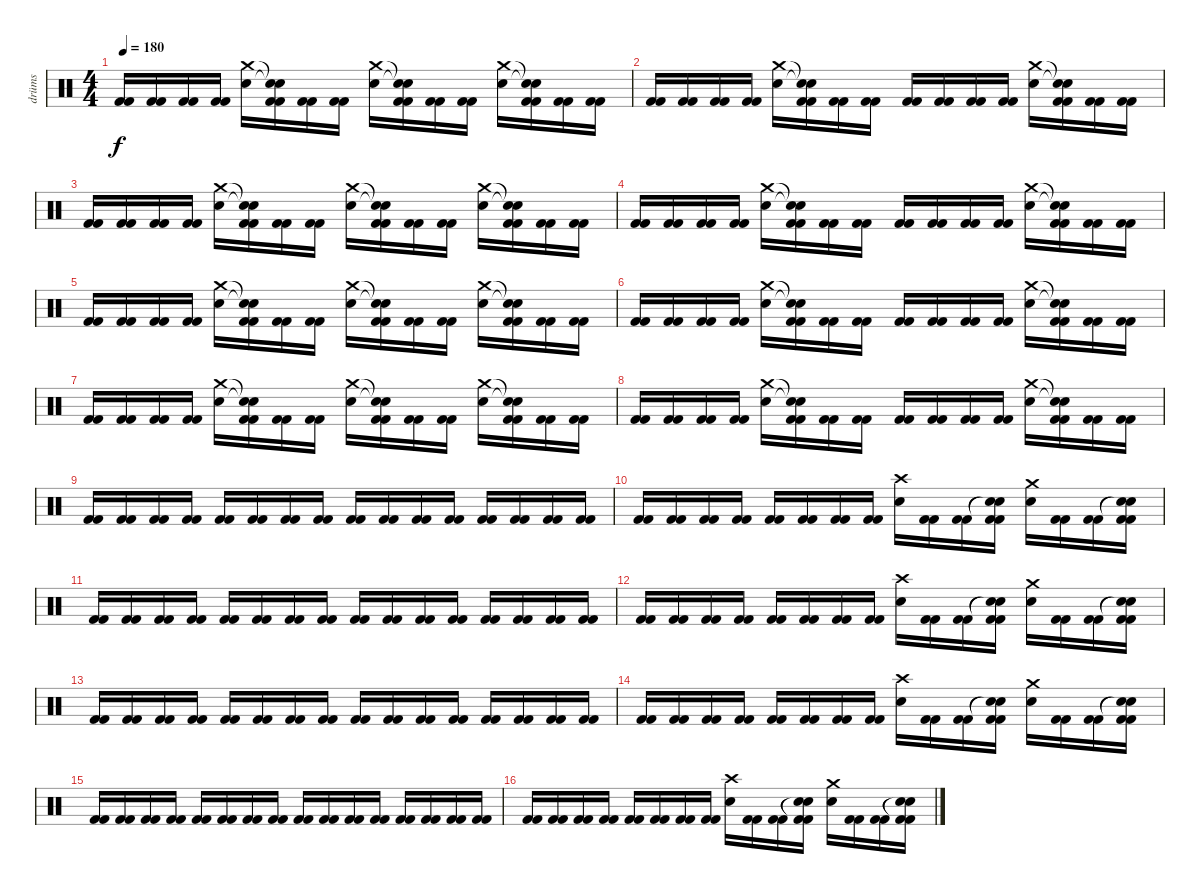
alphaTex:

\track ("drüms" "drüms") {instrument percussion}
\staff {score}
\articulation defaults
\ts (4 4)
\tempo 180
\clef neutral
\ks c
("Kick (hit) 2" "Kick (hit) 2").16{dy f} ("Kick (hit) 2" "Kick (hit) 2").16 ("Kick (hit) 2" "Kick (hit) 2").16 ("Kick (hit) 2" "Kick (hit) 2").16 ("Crash medium (hit)" "Electric Snare (hit)").16 ("Snare (hit)"{t} "Snare (hit)"{t} "Kick (hit) 2" "Kick (hit) 2").16 ("Kick (hit) 2" "Kick (hit) 2").16 ("Kick (hit) 2" "Kick (hit) 2").16 ("Crash medium (hit)" "Electric Snare (hit)").16 ("Snare (hit)"{t} "Snare (hit)"{t} "Kick (hit) 2" "Kick (hit) 2").16 ("Kick (hit) 2" "Kick (hit) 2").16 ("Kick (hit) 2" "Kick (hit) 2").16 ("Crash medium (hit)" "Electric Snare (hit)").16 ("Snare (hit)"{t} "Snare (hit)"{t} "Kick (hit) 2" "Kick (hit) 2").16 ("Kick (hit) 2" "Kick (hit) 2").16 ("Kick (hit) 2" "Kick (hit) 2").16 |
("Kick (hit) 2" "Kick (hit) 2").16 ("Kick (hit) 2" "Kick (hit) 2").16 ("Kick (hit) 2" "Kick (hit) 2").16 ("Kick (hit) 2" "Kick (hit) 2").16 ("Crash medium (hit)" "Electric Snare (hit)").16 ("Snare (hit)"{t} "Snare (hit)"{t} "Kick (hit) 2" "Kick (hit) 2").16 ("Kick (hit) 2" "Kick (hit) 2").16 ("Kick (hit) 2" "Kick (hit) 2").16 ("Kick (hit) 2" "Kick (hit) 2").16 ("Kick (hit) 2" "Kick (hit) 2").16 ("Kick (hit) 2" "Kick (hit) 2").16 ("Kick (hit) 2" "Kick (hit) 2").16 ("Crash medium (hit)" "Electric Snare (hit)").16 ("Snare (hit)"{t} "Snare (hit)"{t} "Kick (hit) 2" "Kick (hit) 2").16 ("Kick (hit) 2" "Kick (hit) 2").16 ("Kick (hit) 2" "Kick (hit) 2").16 |
("Kick (hit) 2" "Kick (hit) 2").16 ("Kick (hit) 2" "Kick (hit) 2").16 ("Kick (hit) 2" "Kick (hit) 2").16 ("Kick (hit) 2" "Kick (hit) 2").16 ("Crash medium (hit)" "Electric Snare (hit)").16 ("Snare (hit)"{t} "Snare (hit)"{t} "Kick (hit) 2" "Kick (hit) 2").16 ("Kick (hit) 2" "Kick (hit) 2").16 ("Kick (hit) 2" "Kick (hit) 2").16 ("Crash medium (hit)" "Electric Snare (hit)").16 ("Snare (hit)"{t} "Snare (hit)"{t} "Kick (hit) 2" "Kick (hit) 2").16 ("Kick (hit) 2" "Kick (hit) 2").16 ("Kick (hit) 2" "Kick (hit) 2").16 ("Crash medium (hit)" "Electric Snare (hit)").16 ("Snare (hit)"{t} "Snare (hit)"{t} "Kick (hit) 2" "Kick (hit) 2").16 ("Kick (hit) 2" "Kick (hit) 2").16 ("Kick (hit) 2" "Kick (hit) 2").16 |
("Kick (hit) 2" "Kick (hit) 2").16 ("Kick (hit) 2" "Kick (hit) 2").16 ("Kick (hit) 2" "Kick (hit) 2").16 ("Kick (hit) 2" "Kick (hit) 2").16 ("Crash medium (hit)" "Electric Snare (hit)").16 ("Snare (hit)"{t} "Snare (hit)"{t} "Kick (hit) 2" "Kick (hit) 2").16 ("Kick (hit) 2" "Kick (hit) 2").16 ("Kick (hit) 2" "Kick (hit) 2").16 ("Kick (hit) 2" "Kick (hit) 2").16 ("Kick (hit) 2" "Kick (hit) 2").16 ("Kick (hit) 2" "Kick (hit) 2").16 ("Kick (hit) 2" "Kick (hit) 2").16 ("Crash medium (hit)" "Electric Snare (hit)").16 ("Snare (hit)"{t} "Snare (hit)"{t} "Kick (hit) 2" "Kick (hit) 2").16 ("Kick (hit) 2" "Kick (hit) 2").16 ("Kick (hit) 2" "Kick (hit) 2").16 |
("Kick (hit) 2" "Kick (hit) 2").16 ("Kick (hit) 2" "Kick (hit) 2").16 ("Kick (hit) 2" "Kick (hit) 2").16 ("Kick (hit) 2" "Kick (hit) 2").16 ("Crash medium (hit)" "Electric Snare (hit)").16 ("Snare (hit)"{t} "Snare (hit)"{t} "Kick (hit) 2" "Kick (hit) 2").16 ("Kick (hit) 2" "Kick (hit) 2").16 ("Kick (hit) 2" "Kick (hit) 2").16 ("Crash medium (hit)" "Electric Snare (hit)").16 ("Snare (hit)"{t} "Snare (hit)"{t} "Kick (hit) 2" "Kick (hit) 2").16 ("Kick (hit) 2" "Kick (hit) 2").16 ("Kick (hit) 2" "Kick (hit) 2").16 ("Crash medium (hit)" "Electric Snare (hit)").16 ("Snare (hit)"{t} "Snare (hit)"{t} "Kick (hit) 2" "Kick (hit) 2").16 ("Kick (hit) 2" "Kick (hit) 2").16 ("Kick (hit) 2" "Kick (hit) 2").16 |
("Kick (hit) 2" "Kick (hit) 2").16 ("Kick (hit) 2" "Kick (hit) 2").16 ("Kick (hit) 2" "Kick (hit) 2").16 ("Kick (hit) 2" "Kick (hit) 2").16 ("Crash medium (hit)" "Electric Snare (hit)").16 ("Snare (hit)"{t} "Snare (hit)"{t} "Kick (hit) 2" "Kick (hit) 2").16 ("Kick (hit) 2" "Kick (hit) 2").16 ("Kick (hit) 2" "Kick (hit) 2").16 ("Kick (hit) 2" "Kick (hit) 2").16 ("Kick (hit) 2" "Kick (hit) 2").16 ("Kick (hit) 2" "Kick (hit) 2").16 ("Kick (hit) 2" "Kick (hit) 2").16 ("Crash medium (hit)" "Electric Snare (hit)").16 ("Snare (hit)"{t} "Snare (hit)"{t} "Kick (hit) 2" "Kick (hit) 2").16 ("Kick (hit) 2" "Kick (hit) 2").16 ("Kick (hit) 2" "Kick (hit) 2").16 |
("Kick (hit) 2" "Kick (hit) 2").16 ("Kick (hit) 2" "Kick (hit) 2").16 ("Kick (hit) 2" "Kick (hit) 2").16 ("Kick (hit) 2" "Kick (hit) 2").16 ("Crash medium (hit)" "Electric Snare (hit)").16 ("Snare (hit)"{t} "Snare (hit)"{t} "Kick (hit) 2" "Kick (hit) 2").16 ("Kick (hit) 2" "Kick (hit) 2").16 ("Kick (hit) 2" "Kick (hit) 2").16 ("Crash medium (hit)" "Electric Snare (hit)").16 ("Snare (hit)"{t} "Snare (hit)"{t} "Kick (hit) 2" "Kick (hit) 2").16 ("Kick (hit) 2" "Kick (hit) 2").16 ("Kick (hit) 2" "Kick (hit) 2").16 ("Crash medium (hit)" "Electric Snare (hit)").16 ("Snare (hit)"{t} "Snare (hit)"{t} "Kick (hit) 2" "Kick (hit) 2").16 ("Kick (hit) 2" "Kick (hit) 2").16 ("Kick (hit) 2" "Kick (hit) 2").16 |
("Kick (hit) 2" "Kick (hit) 2").16 ("Kick (hit) 2" "Kick (hit) 2").16 ("Kick (hit) 2" "Kick (hit) 2").16 ("Kick (hit) 2" "Kick (hit) 2").16 ("Crash medium (hit)" "Electric Snare (hit)").16 ("Snare (hit)"{t} "Snare (hit)"{t} "Kick (hit) 2" "Kick (hit) 2").16 ("Kick (hit) 2" "Kick (hit) 2").16 ("Kick (hit) 2" "Kick (hit) 2").16 ("Kick (hit) 2" "Kick (hit) 2").16 ("Kick (hit) 2" "Kick (hit) 2").16 ("Kick (hit) 2" "Kick (hit) 2").16 ("Kick (hit) 2" "Kick (hit) 2").16 ("Crash medium (hit)" "Electric Snare (hit)").16 ("Snare (hit)"{t} "Snare (hit)"{t} "Kick (hit) 2" "Kick (hit) 2").16 ("Kick (hit) 2" "Kick (hit) 2").16 ("Kick (hit) 2" "Kick (hit) 2").16 |
("Kick (hit) 2" "Kick (hit) 2").16 ("Kick (hit) 2" "Kick (hit) 2").16 ("Kick (hit) 2" "Kick (hit) 2").16 ("Kick (hit) 2" "Kick (hit) 2").16 ("Kick (hit) 2" "Kick (hit) 2").16 ("Kick (hit) 2" "Kick (hit) 2").16 ("Kick (hit) 2" "Kick (hit) 2").16 ("Kick (hit) 2" "Kick (hit) 2").16 ("Kick (hit) 2" "Kick (hit) 2").16 ("Kick (hit) 2" "Kick (hit) 2").16 ("Kick (hit) 2" "Kick (hit) 2").16 ("Kick (hit) 2" "Kick (hit) 2").16 ("Kick (hit) 2" "Kick (hit) 2").16 ("Kick (hit) 2" "Kick (hit) 2").16 ("Kick (hit) 2" "Kick (hit) 2").16 ("Kick (hit) 2" "Kick (hit) 2").16 |
("Kick (hit) 2" "Kick (hit) 2").16 ("Kick (hit) 2" "Kick (hit) 2").16 ("Kick (hit) 2" "Kick (hit) 2").16 ("Kick (hit) 2" "Kick (hit) 2").16 ("Kick (hit) 2" "Kick (hit) 2").16 ("Kick (hit) 2" "Kick (hit) 2").16 ("Kick (hit) 2" "Kick (hit) 2").16 ("Kick (hit) 2" "Kick (hit) 2").16 ("Crash high (hit)" "Electric Snare (hit)").16 ("Kick (hit) 2" "Kick (hit) 2").16 ("Kick (hit) 2" "Kick (hit) 2").16 ("Snare (hit)"{t} "Snare (hit)"{t} "Kick (hit) 2" "Kick (hit) 2").16 ("Crash medium (hit)" "Electric Snare (hit)").16 ("Kick (hit) 2" "Kick (hit) 2").16 ("Kick (hit) 2" "Kick (hit) 2").16 ("Snare (hit)"{t} "Snare (hit)"{t} "Kick (hit) 2" "Kick (hit) 2").16 |
("Kick (hit) 2" "Kick (hit) 2").16 ("Kick (hit) 2" "Kick (hit) 2").16 ("Kick (hit) 2" "Kick (hit) 2").16 ("Kick (hit) 2" "Kick (hit) 2").16 ("Kick (hit) 2" "Kick (hit) 2").16 ("Kick (hit) 2" "Kick (hit) 2").16 ("Kick (hit) 2" "Kick (hit) 2").16 ("Kick (hit) 2" "Kick (hit) 2").16 ("Kick (hit) 2" "Kick (hit) 2").16 ("Kick (hit) 2" "Kick (hit) 2").16 ("Kick (hit) 2" "Kick (hit) 2").16 ("Kick (hit) 2" "Kick (hit) 2").16 ("Kick (hit) 2" "Kick (hit) 2").16 ("Kick (hit) 2" "Kick (hit) 2").16 ("Kick (hit) 2" "Kick (hit) 2").16 ("Kick (hit) 2" "Kick (hit) 2").16 |
("Kick (hit) 2" "Kick (hit) 2").16 ("Kick (hit) 2" "Kick (hit) 2").16 ("Kick (hit) 2" "Kick (hit) 2").16 ("Kick (hit) 2" "Kick (hit) 2").16 ("Kick (hit) 2" "Kick (hit) 2").16 ("Kick (hit) 2" "Kick (hit) 2").16 ("Kick (hit) 2" "Kick (hit) 2").16 ("Kick (hit) 2" "Kick (hit) 2").16 ("Crash high (hit)" "Electric Snare (hit)").16 ("Kick (hit) 2" "Kick (hit) 2").16 ("Kick (hit) 2" "Kick (hit) 2").16 ("Snare (hit)"{t} "Snare (hit)"{t} "Kick (hit) 2" "Kick (hit) 2").16 ("Crash medium (hit)" "Electric Snare (hit)").16 ("Kick (hit) 2" "Kick (hit) 2").16 ("Kick (hit) 2" "Kick (hit) 2").16 ("Snare (hit)"{t} "Snare (hit)"{t} "Kick (hit) 2" "Kick (hit) 2").16 |
("Kick (hit) 2" "Kick (hit) 2").16 ("Kick (hit) 2" "Kick (hit) 2").16 ("Kick (hit) 2" "Kick (hit) 2").16 ("Kick (hit) 2" "Kick (hit) 2").16 ("Kick (hit) 2" "Kick (hit) 2").16 ("Kick (hit) 2" "Kick (hit) 2").16 ("Kick (hit) 2" "Kick (hit) 2").16 ("Kick (hit) 2" "Kick (hit) 2").16 ("Kick (hit) 2" "Kick (hit) 2").16 ("Kick (hit) 2" "Kick (hit) 2").16 ("Kick (hit) 2" "Kick (hit) 2").16 ("Kick (hit) 2" "Kick (hit) 2").16 ("Kick (hit) 2" "Kick (hit) 2").16 ("Kick (hit) 2" "Kick (hit) 2").16 ("Kick (hit) 2" "Kick (hit) 2").16 ("Kick (hit) 2" "Kick (hit) 2").16 |
("Kick (hit) 2" "Kick (hit) 2").16 ("Kick (hit) 2" "Kick (hit) 2").16 ("Kick (hit) 2" "Kick (hit) 2").16 ("Kick (hit) 2" "Kick (hit) 2").16 ("Kick (hit) 2" "Kick (hit) 2").16 ("Kick (hit) 2" "Kick (hit) 2").16 ("Kick (hit) 2" "Kick (hit) 2").16 ("Kick (hit) 2" "Kick (hit) 2").16 ("Crash high (hit)" "Electric Snare (hit)").16 ("Kick (hit) 2" "Kick (hit) 2").16 ("Kick (hit) 2" "Kick (hit) 2").16 ("Snare (hit)"{t} "Snare (hit)"{t} "Kick (hit) 2" "Kick (hit) 2").16 ("Crash medium (hit)" "Electric Snare (hit)").16 ("Kick (hit) 2" "Kick (hit) 2").16 ("Kick (hit) 2" "Kick (hit) 2").16 ("Snare (hit)"{t} "Snare (hit)"{t} "Kick (hit) 2" "Kick (hit) 2").16 |
("Kick (hit) 2" "Kick (hit) 2").16 ("Kick (hit) 2" "Kick (hit) 2").16 ("Kick (hit) 2" "Kick (hit) 2").16 ("Kick (hit) 2" "Kick (hit) 2").16 ("Kick (hit) 2" "Kick (hit) 2").16 ("Kick (hit) 2" "Kick (hit) 2").16 ("Kick (hit) 2" "Kick (hit) 2").16 ("Kick (hit) 2" "Kick (hit) 2").16 ("Kick (hit) 2" "Kick (hit) 2").16 ("Kick (hit) 2" "Kick (hit) 2").16 ("Kick (hit) 2" "Kick (hit) 2").16 ("Kick (hit) 2" "Kick (hit) 2").16 ("Kick (hit) 2" "Kick (hit) 2").16 ("Kick (hit) 2" "Kick (hit) 2").16 ("Kick (hit) 2" "Kick (hit) 2").16 ("Kick (hit) 2" "Kick (hit) 2").16 |
("Kick (hit) 2" "Kick (hit) 2").16 ("Kick (hit) 2" "Kick (hit) 2").16 ("Kick (hit) 2" "Kick (hit) 2").16 ("Kick (hit) 2" "Kick (hit) 2").16 ("Kick (hit) 2" "Kick (hit) 2").16 ("Kick (hit) 2" "Kick (hit) 2").16 ("Kick (hit) 2" "Kick (hit) 2").16 ("Kick (hit) 2" "Kick (hit) 2").16 ("Crash high (hit)" "Electric Snare (hit)").16 ("Kick (hit) 2" "Kick (hit) 2").16 ("Kick (hit) 2" "Kick (hit) 2").16 ("Snare (hit)"{t} "Snare (hit)"{t} "Kick (hit) 2" "Kick (hit) 2").16 ("Crash medium (hit)" "Electric Snare (hit)").16 ("Kick (hit) 2" "Kick (hit) 2").16 ("Kick (hit) 2" "Kick (hit) 2").16 ("Snare (hit)"{t} "Snare (hit)"{t} "Kick (hit) 2" "Kick (hit) 2").16
